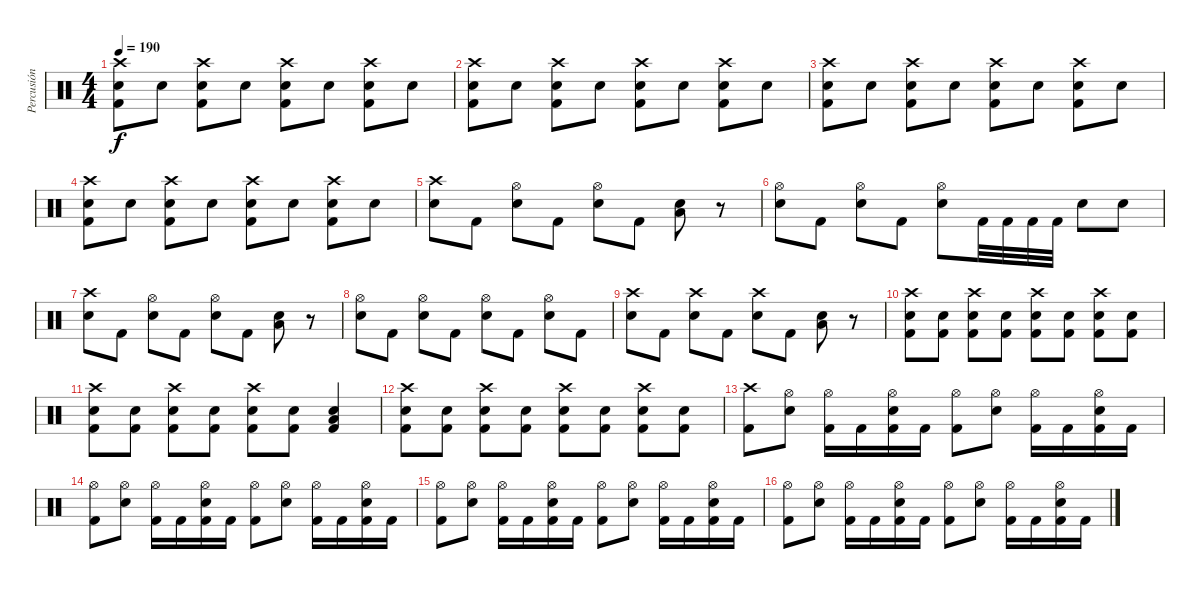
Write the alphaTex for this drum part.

\track ("Percusión" "Percusión") {instrument percussion}
\staff {score}
\articulation defaults
\ts (4 4)
\tempo 190
\clef neutral
\ks c
("Kick (hit) 2" "Snare (hit) 2" "Crash high (hit)").8{dy f} "Snare (hit) 2".8 ("Kick (hit) 2" "Snare (hit) 2" "Crash high (hit)").8 "Snare (hit) 2".8 ("Kick (hit) 2" "Snare (hit) 2" "Crash high (hit)").8 "Snare (hit) 2".8 ("Kick (hit) 2" "Snare (hit) 2" "Crash high (hit)").8 "Snare (hit) 2".8 |
("Kick (hit) 2" "Snare (hit) 2" "Crash high (hit)").8 "Snare (hit) 2".8 ("Kick (hit) 2" "Snare (hit) 2" "Crash high (hit)").8 "Snare (hit) 2".8 ("Kick (hit) 2" "Snare (hit) 2" "Crash high (hit)").8 "Snare (hit) 2".8 ("Kick (hit) 2" "Snare (hit) 2" "Crash high (hit)").8 "Snare (hit) 2".8 |
("Kick (hit) 2" "Snare (hit) 2" "Crash high (hit)").8 "Snare (hit) 2".8 ("Kick (hit) 2" "Snare (hit) 2" "Crash high (hit)").8 "Snare (hit) 2".8 ("Kick (hit) 2" "Snare (hit) 2" "Crash high (hit)").8 "Snare (hit) 2".8 ("Kick (hit) 2" "Snare (hit) 2" "Crash high (hit)").8 "Snare (hit) 2".8 |
("Kick (hit) 2" "Snare (hit) 2" "Crash high (hit)").8 "Snare (hit) 2".8 ("Kick (hit) 2" "Snare (hit) 2" "Crash high (hit)").8 "Snare (hit) 2".8 ("Kick (hit) 2" "Snare (hit) 2" "Crash high (hit)").8 "Snare (hit) 2".8 ("Kick (hit) 2" "Snare (hit) 2" "Crash high (hit)").8 "Snare (hit) 2".8 |
("Snare (hit) 2" "Crash high (hit)").8 "Kick (hit) 2".8 ("Snare (hit) 2" "Hi-Hat (open)").8 "Kick (hit) 2".8 ("Snare (hit) 2" "Hi-Hat (open)").8 "Kick (hit) 2".8 ("Snare (hit) 2" "Low Tom (hit)").8 r.8 |
("Snare (hit) 2" "Hi-Hat (open)").8 "Kick (hit) 2".8 ("Snare (hit) 2" "Hi-Hat (open)").8 "Kick (hit) 2".8 ("Snare (hit) 2" "Hi-Hat (open)").8 "Kick (hit) 2".32 "Kick (hit) 2".32 "Kick (hit) 2".32 "Kick (hit) 2".32 "Snare (hit) 2".8 "Snare (hit) 2".8 |
("Snare (hit) 2" "Crash high (hit)").8 "Kick (hit) 2".8 ("Snare (hit) 2" "Hi-Hat (open)").8 "Kick (hit) 2".8 ("Snare (hit) 2" "Hi-Hat (open)").8 "Kick (hit) 2".8 ("Snare (hit) 2" "Low Tom (hit)").8 r.8 |
("Snare (hit) 2" "Hi-Hat (open)").8 "Kick (hit) 2".8 ("Snare (hit) 2" "Hi-Hat (open)").8 "Kick (hit) 2".8 ("Snare (hit) 2" "Hi-Hat (open)").8 "Kick (hit) 2".8 ("Snare (hit) 2" "Hi-Hat (open)").8 "Kick (hit) 2".8 |
("Snare (hit) 2" "Crash high (hit)").8 "Kick (hit) 2".8 ("Snare (hit) 2" "Crash high (hit)").8 "Kick (hit) 2".8 ("Snare (hit) 2" "Crash high (hit)").8 "Kick (hit) 2".8 ("Snare (hit) 2" "Low Tom (hit)").8 r.8 |
("Kick (hit) 2" "Snare (hit) 2" "Crash high (hit)").8 ("Kick (hit) 2" "Snare (hit) 2").8 ("Kick (hit) 2" "Snare (hit) 2" "Crash high (hit)").8 ("Kick (hit) 2" "Snare (hit) 2").8 ("Kick (hit) 2" "Snare (hit) 2" "Crash high (hit)").8 ("Kick (hit) 2" "Snare (hit) 2").8 ("Kick (hit) 2" "Snare (hit) 2" "Crash high (hit)").8 ("Kick (hit) 2" "Snare (hit) 2").8 |
("Kick (hit) 2" "Snare (hit) 2" "Crash high (hit)").8 ("Kick (hit) 2" "Snare (hit) 2").8 ("Kick (hit) 2" "Snare (hit) 2" "Crash high (hit)").8 ("Kick (hit) 2" "Snare (hit) 2").8 ("Kick (hit) 2" "Snare (hit) 2" "Crash high (hit)").8 ("Kick (hit) 2" "Snare (hit) 2").8 ("Kick (hit) 2" "Snare (hit) 2" "Low Tom (hit)").4 |
("Kick (hit) 2" "Snare (hit) 2" "Crash high (hit)").8 ("Kick (hit) 2" "Snare (hit) 2").8 ("Kick (hit) 2" "Snare (hit) 2" "Crash high (hit)").8 ("Kick (hit) 2" "Snare (hit) 2").8 ("Kick (hit) 2" "Snare (hit) 2" "Crash high (hit)").8 ("Kick (hit) 2" "Snare (hit) 2").8 ("Kick (hit) 2" "Snare (hit) 2" "Crash high (hit)").8 ("Kick (hit) 2" "Snare (hit) 2").8 |
("Kick (hit) 2" "Crash high (hit)").8 ("Snare (hit) 2" "Hi-Hat (open)").8 ("Kick (hit) 2" "Hi-Hat (open)").16 "Kick (hit) 2".16 ("Kick (hit) 2" "Snare (hit) 2" "Hi-Hat (open)").16 "Kick (hit) 2".16 ("Kick (hit) 2" "Hi-Hat (open)").8 ("Snare (hit) 2" "Hi-Hat (open)").8 ("Kick (hit) 2" "Hi-Hat (open)").16 "Kick (hit) 2".16 ("Kick (hit) 2" "Snare (hit) 2" "Hi-Hat (open)").16 "Kick (hit) 2".16 |
("Kick (hit) 2" "Hi-Hat (open)").8 ("Snare (hit) 2" "Hi-Hat (open)").8 ("Kick (hit) 2" "Hi-Hat (open)").16 "Kick (hit) 2".16 ("Kick (hit) 2" "Snare (hit) 2" "Hi-Hat (open)").16 "Kick (hit) 2".16 ("Kick (hit) 2" "Hi-Hat (open)").8 ("Snare (hit) 2" "Hi-Hat (open)").8 ("Kick (hit) 2" "Hi-Hat (open)").16 "Kick (hit) 2".16 ("Kick (hit) 2" "Snare (hit) 2" "Hi-Hat (open)").16 "Kick (hit) 2".16 |
("Kick (hit) 2" "Hi-Hat (open)").8 ("Snare (hit) 2" "Hi-Hat (open)").8 ("Kick (hit) 2" "Hi-Hat (open)").16 "Kick (hit) 2".16 ("Kick (hit) 2" "Snare (hit) 2" "Hi-Hat (open)").16 "Kick (hit) 2".16 ("Kick (hit) 2" "Hi-Hat (open)").8 ("Snare (hit) 2" "Hi-Hat (open)").8 ("Kick (hit) 2" "Hi-Hat (open)").16 "Kick (hit) 2".16 ("Kick (hit) 2" "Snare (hit) 2" "Hi-Hat (open)").16 "Kick (hit) 2".16 |
("Kick (hit) 2" "Hi-Hat (open)").8 ("Snare (hit) 2" "Hi-Hat (open)").8 ("Kick (hit) 2" "Hi-Hat (open)").16 "Kick (hit) 2".16 ("Kick (hit) 2" "Snare (hit) 2" "Hi-Hat (open)").16 "Kick (hit) 2".16 ("Kick (hit) 2" "Hi-Hat (open)").8 ("Snare (hit) 2" "Hi-Hat (open)").8 ("Kick (hit) 2" "Hi-Hat (open)").16 "Kick (hit) 2".16 ("Kick (hit) 2" "Snare (hit) 2" "Hi-Hat (open)").16 "Kick (hit) 2".16
